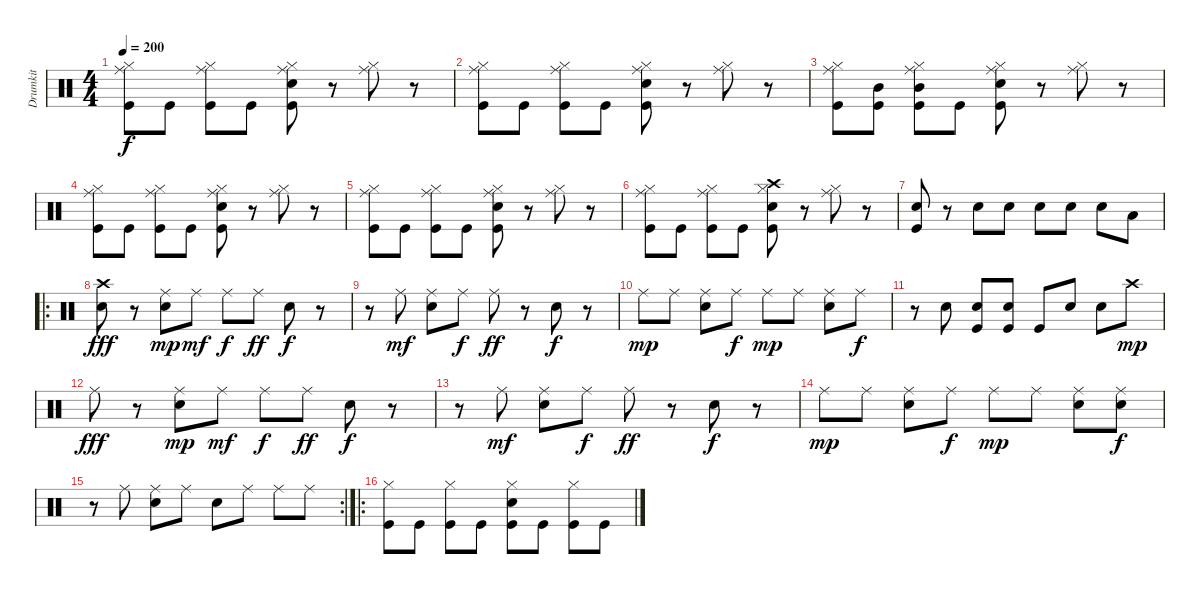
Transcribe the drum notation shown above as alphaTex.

\track ("Drumkit" "Drumkit") {instrument percussion}
\staff {score}
\articulation defaults
\ts (4 4)
\tempo 200
\clef neutral
\ks c
("Ride (middle)" "Hi-Hat (closed)" "Kick (hit)").8{dy f} "Kick (hit)".8 ("Ride (middle)" "Hi-Hat (closed)" "Kick (hit)").8 "Kick (hit)".8 ("Ride (middle)" "Snare (hit) 2" "Hi-Hat (closed)" "Kick (hit)").8 r.8 ("Ride (middle)" "Hi-Hat (closed)").8 r.8 |
("Ride (middle)" "Hi-Hat (closed)" "Kick (hit)").8 "Kick (hit)".8 ("Ride (middle)" "Hi-Hat (closed)" "Kick (hit)").8 "Kick (hit)".8 ("Ride (middle)" "Snare (hit) 2" "Hi-Hat (closed)" "Kick (hit)").8 r.8 ("Ride (middle)" "Hi-Hat (closed)").8 r.8 |
("Ride (middle)" "Hi-Hat (closed)" "Kick (hit)").8 ("Mid Tom (hit)" "Kick (hit)").8 ("Ride (middle)" "Mid Tom (hit)" "Hi-Hat (closed)" "Kick (hit)").8 "Kick (hit)".8 ("Ride (middle)" "Snare (hit) 2" "Hi-Hat (closed)" "Kick (hit)").8 r.8 ("Ride (middle)" "Hi-Hat (closed)").8 r.8 |
("Ride (middle)" "Hi-Hat (closed)" "Kick (hit)").8 "Kick (hit)".8 ("Ride (middle)" "Hi-Hat (closed)" "Kick (hit)").8 "Kick (hit)".8 ("Ride (middle)" "Snare (hit) 2" "Hi-Hat (closed)" "Kick (hit)").8 r.8 ("Ride (middle)" "Hi-Hat (closed)").8 r.8 |
("Ride (middle)" "Hi-Hat (closed)" "Kick (hit)").8 "Kick (hit)".8 ("Ride (middle)" "Hi-Hat (closed)" "Kick (hit)").8 "Kick (hit)".8 ("Ride (middle)" "Snare (hit) 2" "Hi-Hat (closed)" "Kick (hit)").8 r.8 ("Ride (middle)" "Hi-Hat (closed)").8 r.8 |
("Ride (middle)" "Hi-Hat (closed)" "Kick (hit)").8 "Kick (hit)".8 ("Ride (middle)" "Hi-Hat (closed)" "Kick (hit)").8 "Kick (hit)".8 ("Crash high (hit)" "Snare (hit) 2" "Hi-Hat (closed)" "Kick (hit)").8 r.8 ("Ride (middle)" "Hi-Hat (closed)").8 r.8 |
("Snare (hit) 2" "Kick (hit)").8 r.8 "Snare (hit) 2".8 "Snare (hit) 2".8 "Snare (hit) 2".8 "Snare (hit) 2".8 "Snare (hit) 2".8 "Low Tom (hit)".8 |
\ro
("Crash high (hit)" "Snare (hit) 2").8{dy fff} r.8 ("Ride (middle)" "Snare (hit) 2").8{dy mp} "Ride (middle)".8{dy mf} "Ride (middle)".8{dy f} "Ride (middle)".8{dy ff} "Snare (hit) 2".8{dy f} r.8 |
r.8 "Ride (middle)".8{dy mf} ("Ride (middle)" "Snare (hit) 2").8 "Ride (middle)".8{dy f} "Ride (middle)".8{dy ff} r.8 "Snare (hit) 2".8{dy f} r.8 |
"Ride (middle)".8{dy mp} "Ride (middle)".8 ("Ride (middle)" "Snare (hit) 2").8 "Ride (middle)".8{dy f} "Ride (middle)".8{dy mp} "Ride (middle)".8 ("Ride (middle)" "Snare (hit) 2").8 "Ride (middle)".8{dy f} |
r.8 "Snare (hit) 2".8 ("Snare (hit) 2" "Kick (hit)").8 ("Snare (hit) 2" "Kick (hit)").8 "Kick (hit)".8 "Snare (hit) 2".8 "Snare (hit) 2".8 "Crash high (hit)".8{dy mp} |
"Ride (middle)".8{dy fff} r.8 ("Ride (middle)" "Snare (hit) 2").8{dy mp} "Ride (middle)".8{dy mf} "Ride (middle)".8{dy f} "Ride (middle)".8{dy ff} "Snare (hit) 2".8{dy f} r.8 |
r.8 "Ride (middle)".8{dy mf} ("Ride (middle)" "Snare (hit) 2").8 "Ride (middle)".8{dy f} "Ride (middle)".8{dy ff} r.8 "Snare (hit) 2".8{dy f} r.8 |
"Ride (middle)".8{dy mp} "Ride (middle)".8 ("Ride (middle)" "Snare (hit) 2").8 "Ride (middle)".8{dy f} "Ride (middle)".8{dy mp} "Ride (middle)".8 ("Ride (middle)" "Snare (hit) 2").8 ("Ride (middle)" "Snare (hit) 2").8{dy f} |
\rc 2
r.8 "Ride (middle)".8 ("Ride (middle)" "Snare (hit) 2").8 "Ride (middle)".8 "Snare (hit) 2".8 "Ride (middle)".8 "Ride (middle)".8 "Ride (middle)".8 |
\ro
("Hi-Hat (closed)" "Kick (hit)").8 "Kick (hit)".8 ("Hi-Hat (closed)" "Kick (hit)").8 "Kick (hit)".8 ("Hi-Hat (closed)" "Snare (hit) 2" "Kick (hit)").8 "Kick (hit)".8 ("Hi-Hat (closed)" "Kick (hit)").8 "Kick (hit)".8
